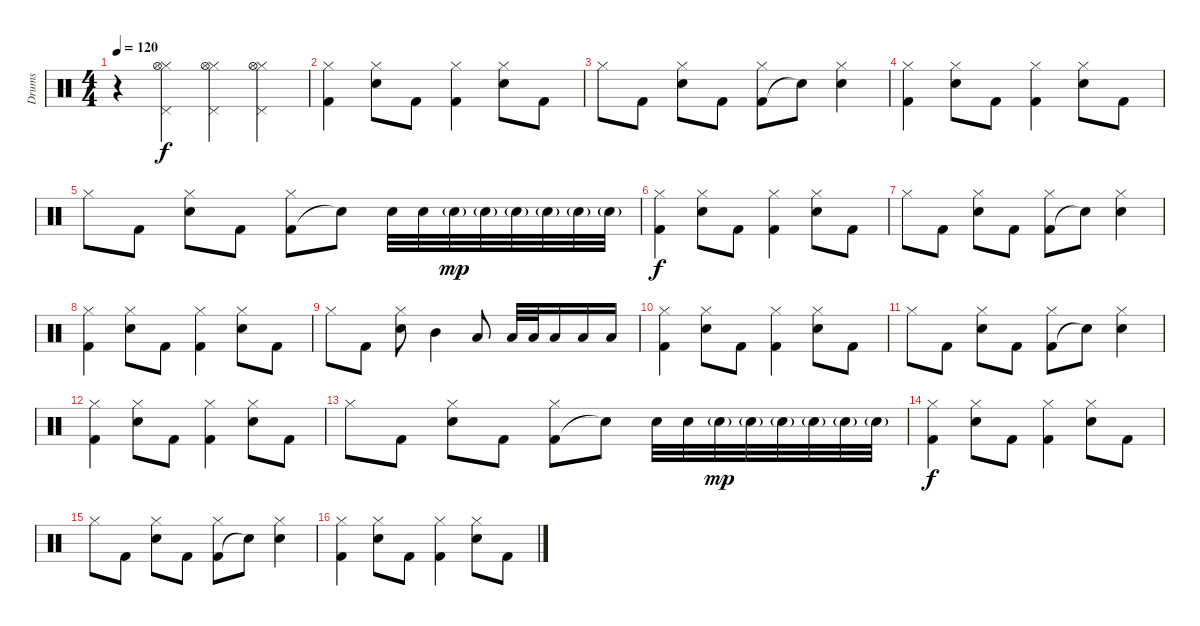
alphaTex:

\track ("Drums" "Drums") {instrument percussion}
\staff {score}
\articulation defaults
\ts (4 4)
\tempo 120
\clef neutral
\ks c
r.4{dy f} ("Hi-Hat (closed)" "Pedal Hi-Hat (hit)" "Hi-Hat (open)").4 ("Hi-Hat (closed)" "Pedal Hi-Hat (hit)" "Hi-Hat (open)").4 ("Hi-Hat (closed)" "Pedal Hi-Hat (hit)" "Hi-Hat (open)").4 |
("Kick (hit) 2" "Hi-Hat (closed)").4 ("Snare (hit) 2" "Hi-Hat (closed)").8 "Kick (hit) 2".8 ("Kick (hit) 2" "Hi-Hat (closed)").4 ("Snare (hit) 2" "Hi-Hat (closed)").8 "Kick (hit) 2".8 |
"Hi-Hat (closed)".8 "Kick (hit) 2".8 ("Snare (hit) 2" "Hi-Hat (closed)").8 "Kick (hit) 2".8 ("Kick (hit) 2" "Hi-Hat (closed)").8 "Snare (hit)"{t}.8 ("Snare (hit) 2" "Hi-Hat (closed)").4 |
("Kick (hit) 2" "Hi-Hat (closed)").4 ("Snare (hit) 2" "Hi-Hat (closed)").8 "Kick (hit) 2".8 ("Kick (hit) 2" "Hi-Hat (closed)").4 ("Snare (hit) 2" "Hi-Hat (closed)").8 "Kick (hit) 2".8 |
"Hi-Hat (closed)".8 "Kick (hit) 2".8 ("Snare (hit) 2" "Hi-Hat (closed)").8 "Kick (hit) 2".8 ("Kick (hit) 2" "Hi-Hat (closed)").8 "Snare (hit)"{t}.8 "Snare (hit) 2".32 "Snare (hit) 2".32 "Snare (hit) 2"{g}.32{dy mp} "Snare (hit) 2"{g}.32 "Snare (hit) 2"{g}.32 "Snare (hit) 2"{g}.32 "Snare (hit) 2"{g}.32 "Snare (hit) 2"{g}.32 |
("Kick (hit) 2" "Hi-Hat (closed)").4{dy f} ("Snare (hit) 2" "Hi-Hat (closed)").8 "Kick (hit) 2".8 ("Kick (hit) 2" "Hi-Hat (closed)").4 ("Snare (hit) 2" "Hi-Hat (closed)").8 "Kick (hit) 2".8 |
"Hi-Hat (closed)".8 "Kick (hit) 2".8 ("Snare (hit) 2" "Hi-Hat (closed)").8 "Kick (hit) 2".8 ("Kick (hit) 2" "Hi-Hat (closed)").8 "Snare (hit)"{t}.8 ("Snare (hit) 2" "Hi-Hat (closed)").4 |
("Kick (hit) 2" "Hi-Hat (closed)").4 ("Snare (hit) 2" "Hi-Hat (closed)").8 "Kick (hit) 2".8 ("Kick (hit) 2" "Hi-Hat (closed)").4 ("Snare (hit) 2" "Hi-Hat (closed)").8 "Kick (hit) 2".8 |
"Hi-Hat (closed)".8 "Kick (hit) 2".8 ("Snare (hit) 2" "Hi-Hat (closed)").8 "Mid Tom (hit)".4 "Low Tom (hit)".8 "Low Tom (hit)".32 "Low Tom (hit)".32 "Low Tom (hit)".16 "Low Floor Tom (hit)".16 "Low Floor Tom (hit)".16 |
("Kick (hit) 2" "Hi-Hat (closed)").4 ("Snare (hit) 2" "Hi-Hat (closed)").8 "Kick (hit) 2".8 ("Kick (hit) 2" "Hi-Hat (closed)").4 ("Snare (hit) 2" "Hi-Hat (closed)").8 "Kick (hit) 2".8 |
"Hi-Hat (closed)".8 "Kick (hit) 2".8 ("Snare (hit) 2" "Hi-Hat (closed)").8 "Kick (hit) 2".8 ("Kick (hit) 2" "Hi-Hat (closed)").8 "Snare (hit)"{t}.8 ("Snare (hit) 2" "Hi-Hat (closed)").4 |
("Kick (hit) 2" "Hi-Hat (closed)").4 ("Snare (hit) 2" "Hi-Hat (closed)").8 "Kick (hit) 2".8 ("Kick (hit) 2" "Hi-Hat (closed)").4 ("Snare (hit) 2" "Hi-Hat (closed)").8 "Kick (hit) 2".8 |
"Hi-Hat (closed)".8 "Kick (hit) 2".8 ("Snare (hit) 2" "Hi-Hat (closed)").8 "Kick (hit) 2".8 ("Kick (hit) 2" "Hi-Hat (closed)").8 "Snare (hit)"{t}.8 "Snare (hit) 2".32 "Snare (hit) 2".32 "Snare (hit) 2"{g}.32{dy mp} "Snare (hit) 2"{g}.32 "Snare (hit) 2"{g}.32 "Snare (hit) 2"{g}.32 "Snare (hit) 2"{g}.32 "Snare (hit) 2"{g}.32 |
("Kick (hit) 2" "Hi-Hat (closed)").4{dy f} ("Snare (hit) 2" "Hi-Hat (closed)").8 "Kick (hit) 2".8 ("Kick (hit) 2" "Hi-Hat (closed)").4 ("Snare (hit) 2" "Hi-Hat (closed)").8 "Kick (hit) 2".8 |
"Hi-Hat (closed)".8 "Kick (hit) 2".8 ("Snare (hit) 2" "Hi-Hat (closed)").8 "Kick (hit) 2".8 ("Kick (hit) 2" "Hi-Hat (closed)").8 "Snare (hit)"{t}.8 ("Snare (hit) 2" "Hi-Hat (closed)").4 |
("Kick (hit) 2" "Hi-Hat (closed)").4 ("Snare (hit) 2" "Hi-Hat (closed)").8 "Kick (hit) 2".8 ("Kick (hit) 2" "Hi-Hat (closed)").4 ("Snare (hit) 2" "Hi-Hat (closed)").8 "Kick (hit) 2".8
